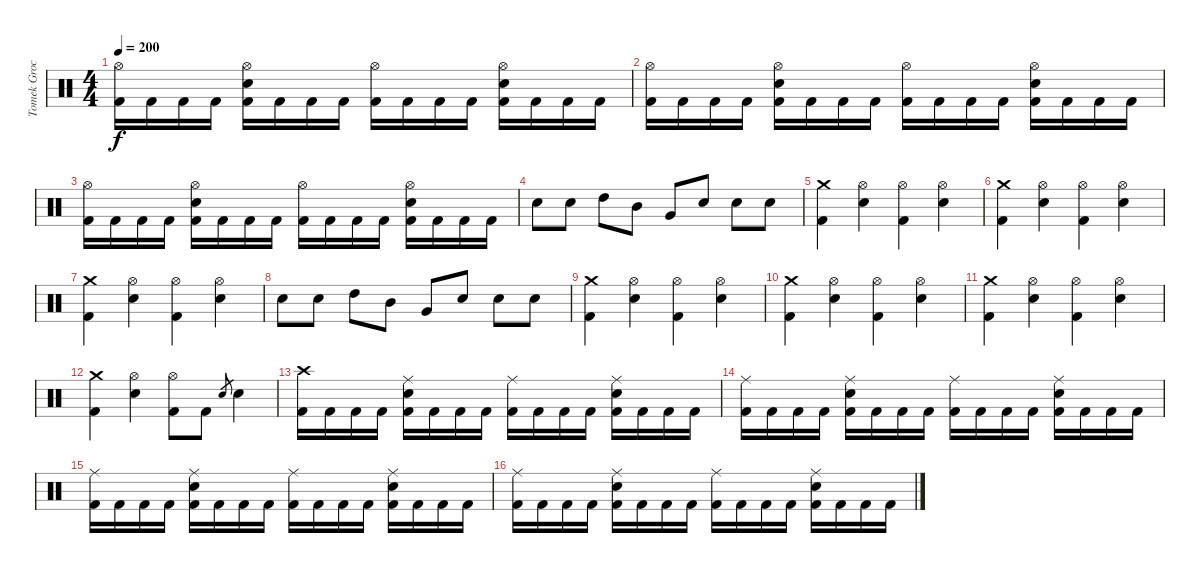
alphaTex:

\track ("Tomek Grochowski" "Tomek Groc") {instrument percussion}
\staff {score}
\articulation defaults
\ts (4 4)
\tempo 200
\clef neutral
\ks c
("Hi-Hat (open)" "Kick (hit) 2").16{dy f} "Kick (hit) 2".16 "Kick (hit) 2".16 "Kick (hit) 2".16 ("Hi-Hat (open)" "Electric Snare (hit)" "Kick (hit) 2").16 "Kick (hit) 2".16 "Kick (hit) 2".16 "Kick (hit) 2".16 ("Hi-Hat (open)" "Kick (hit) 2").16 "Kick (hit) 2".16 "Kick (hit) 2".16 "Kick (hit) 2".16 ("Hi-Hat (open)" "Electric Snare (hit)" "Kick (hit) 2").16 "Kick (hit) 2".16 "Kick (hit) 2".16 "Kick (hit) 2".16 |
("Hi-Hat (open)" "Kick (hit) 2").16 "Kick (hit) 2".16 "Kick (hit) 2".16 "Kick (hit) 2".16 ("Hi-Hat (open)" "Electric Snare (hit)" "Kick (hit) 2").16 "Kick (hit) 2".16 "Kick (hit) 2".16 "Kick (hit) 2".16 ("Hi-Hat (open)" "Kick (hit) 2").16 "Kick (hit) 2".16 "Kick (hit) 2".16 "Kick (hit) 2".16 ("Hi-Hat (open)" "Electric Snare (hit)" "Kick (hit) 2").16 "Kick (hit) 2".16 "Kick (hit) 2".16 "Kick (hit) 2".16 |
("Hi-Hat (open)" "Kick (hit) 2").16 "Kick (hit) 2".16 "Kick (hit) 2".16 "Kick (hit) 2".16 ("Hi-Hat (open)" "Electric Snare (hit)" "Kick (hit) 2").16 "Kick (hit) 2".16 "Kick (hit) 2".16 "Kick (hit) 2".16 ("Hi-Hat (open)" "Kick (hit) 2").16 "Kick (hit) 2".16 "Kick (hit) 2".16 "Kick (hit) 2".16 ("Hi-Hat (open)" "Electric Snare (hit)" "Kick (hit) 2").16 "Kick (hit) 2".16 "Kick (hit) 2".16 "Kick (hit) 2".16 |
"Electric Snare (hit)".8 "Electric Snare (hit)".8 "High Tom (hit)".8 "Mid Tom (hit)".8 "Very Low Tom (hit)".8 "Electric Snare (hit)".8 "Electric Snare (hit)".8 "Electric Snare (hit)".8 |
("Crash medium (hit)" "Kick (hit) 2").4 ("Hi-Hat (open)" "Electric Snare (hit)").4 ("Hi-Hat (open)" "Kick (hit) 2").4 ("Hi-Hat (open)" "Electric Snare (hit)").4 |
("Crash medium (hit)" "Kick (hit) 2").4 ("Hi-Hat (open)" "Electric Snare (hit)").4 ("Hi-Hat (open)" "Kick (hit) 2").4 ("Hi-Hat (open)" "Electric Snare (hit)").4 |
("Crash medium (hit)" "Kick (hit) 2").4 ("Hi-Hat (open)" "Electric Snare (hit)").4 ("Hi-Hat (open)" "Kick (hit) 2").4 ("Hi-Hat (open)" "Electric Snare (hit)").4 |
"Electric Snare (hit)".8 "Electric Snare (hit)".8 "High Tom (hit)".8 "Mid Tom (hit)".8 "Very Low Tom (hit)".8 "Electric Snare (hit)".8 "Electric Snare (hit)".8 "Electric Snare (hit)".8 |
("Crash medium (hit)" "Kick (hit) 2").4 ("Hi-Hat (open)" "Electric Snare (hit)").4 ("Hi-Hat (open)" "Kick (hit) 2").4 ("Hi-Hat (open)" "Electric Snare (hit)").4 |
("Crash medium (hit)" "Kick (hit) 2").4 ("Hi-Hat (open)" "Electric Snare (hit)").4 ("Hi-Hat (open)" "Kick (hit) 2").4 ("Hi-Hat (open)" "Electric Snare (hit)").4 |
("Crash medium (hit)" "Kick (hit) 2").4 ("Hi-Hat (open)" "Electric Snare (hit)").4 ("Hi-Hat (open)" "Kick (hit) 2").4 ("Hi-Hat (open)" "Electric Snare (hit)").4 |
("Crash medium (hit)" "Kick (hit) 2").4 ("Hi-Hat (open)" "Electric Snare (hit)").4 ("Hi-Hat (open)" "Kick (hit) 2").8 "Kick (hit) 2".8 "Electric Snare (hit)".8{gr} "Electric Snare (hit)".4 |
("Crash high (hit)" "Kick (hit) 2").16 "Kick (hit) 2".16 "Kick (hit) 2".16 "Kick (hit) 2".16 ("Ride (middle)" "Electric Snare (hit)" "Kick (hit) 2").16 "Kick (hit) 2".16 "Kick (hit) 2".16 "Kick (hit) 2".16 ("Ride (middle)" "Kick (hit) 2").16 "Kick (hit) 2".16 "Kick (hit) 2".16 "Kick (hit) 2".16 ("Ride (middle)" "Electric Snare (hit)" "Kick (hit) 2").16 "Kick (hit) 2".16 "Kick (hit) 2".16 "Kick (hit) 2".16 |
("Ride (middle)" "Kick (hit) 2").16 "Kick (hit) 2".16 "Kick (hit) 2".16 "Kick (hit) 2".16 ("Ride (middle)" "Electric Snare (hit)" "Kick (hit) 2").16 "Kick (hit) 2".16 "Kick (hit) 2".16 "Kick (hit) 2".16 ("Ride (middle)" "Kick (hit) 2").16 "Kick (hit) 2".16 "Kick (hit) 2".16 "Kick (hit) 2".16 ("Ride (middle)" "Electric Snare (hit)" "Kick (hit) 2").16 "Kick (hit) 2".16 "Kick (hit) 2".16 "Kick (hit) 2".16 |
("Ride (middle)" "Kick (hit) 2").16 "Kick (hit) 2".16 "Kick (hit) 2".16 "Kick (hit) 2".16 ("Ride (middle)" "Electric Snare (hit)" "Kick (hit) 2").16 "Kick (hit) 2".16 "Kick (hit) 2".16 "Kick (hit) 2".16 ("Ride (middle)" "Kick (hit) 2").16 "Kick (hit) 2".16 "Kick (hit) 2".16 "Kick (hit) 2".16 ("Ride (middle)" "Electric Snare (hit)" "Kick (hit) 2").16 "Kick (hit) 2".16 "Kick (hit) 2".16 "Kick (hit) 2".16 |
("Ride (middle)" "Kick (hit) 2").16 "Kick (hit) 2".16 "Kick (hit) 2".16 "Kick (hit) 2".16 ("Ride (middle)" "Electric Snare (hit)" "Kick (hit) 2").16 "Kick (hit) 2".16 "Kick (hit) 2".16 "Kick (hit) 2".16 ("Ride (middle)" "Kick (hit) 2").16 "Kick (hit) 2".16 "Kick (hit) 2".16 "Kick (hit) 2".16 ("Ride (middle)" "Electric Snare (hit)" "Kick (hit) 2").16 "Kick (hit) 2".16 "Kick (hit) 2".16 "Kick (hit) 2".16
